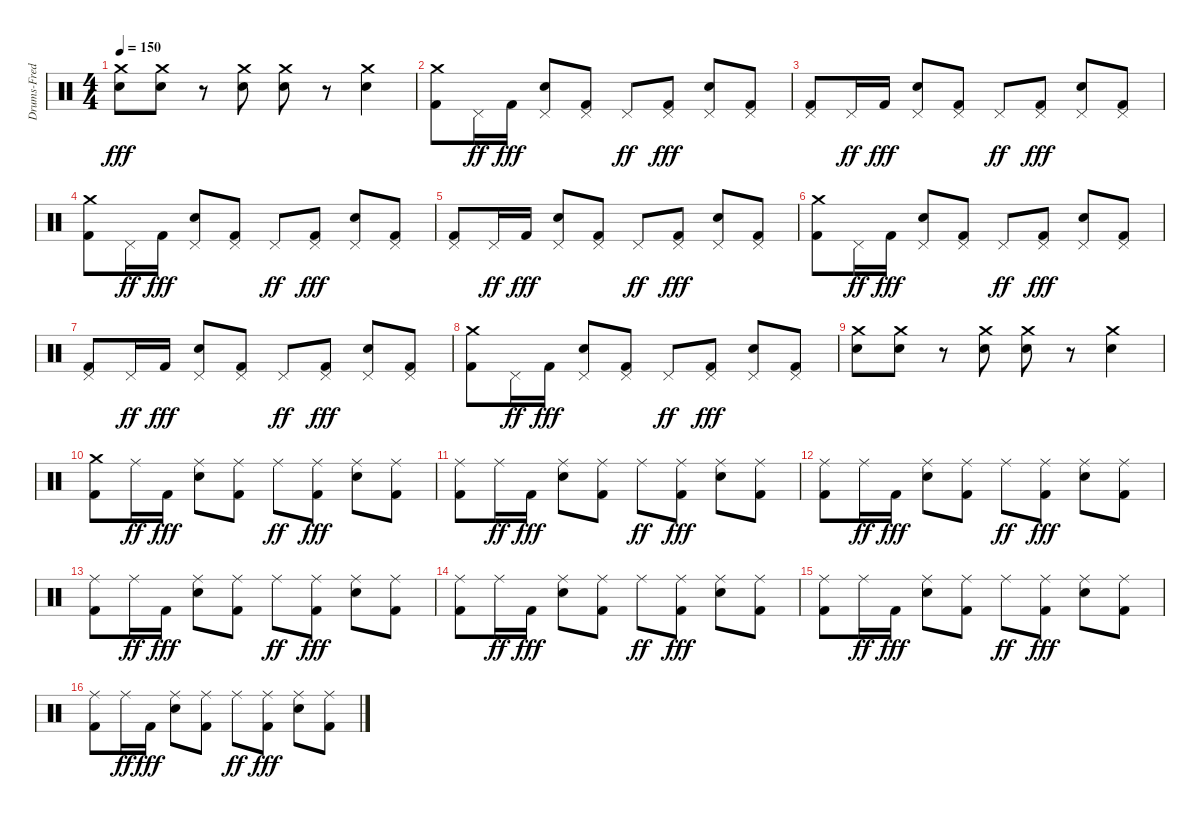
\track ("Drums-Fred" "Drums-Fred") {instrument percussion}
\staff {score}
\articulation defaults
\ts (4 4)
\tempo 150
\clef neutral
\ks c
("Crash medium (hit)" "Snare (hit) 2").8{dy fff} ("Crash medium (hit)" "Snare (hit) 2").8 r.8 ("Crash medium (hit)" "Snare (hit) 2").8 ("Crash medium (hit)" "Snare (hit) 2").8 r.8 ("Crash medium (hit)" "Snare (hit) 2").4 |
("Crash medium (hit)" "Kick (hit) 2").8 "Pedal Hi-Hat (hit)".16{dy ff} "Kick (hit) 2".16{dy fff} ("Pedal Hi-Hat (hit)" "Snare (hit) 2").8 ("Pedal Hi-Hat (hit)" "Kick (hit) 2").8 "Pedal Hi-Hat (hit)".8{dy ff} ("Pedal Hi-Hat (hit)" "Kick (hit) 2").8{dy fff} ("Pedal Hi-Hat (hit)" "Snare (hit) 2").8 ("Pedal Hi-Hat (hit)" "Kick (hit) 2").8 |
("Pedal Hi-Hat (hit)" "Kick (hit) 2").8 "Pedal Hi-Hat (hit)".16{dy ff} "Kick (hit) 2".16{dy fff} ("Pedal Hi-Hat (hit)" "Snare (hit) 2").8 ("Pedal Hi-Hat (hit)" "Kick (hit) 2").8 "Pedal Hi-Hat (hit)".8{dy ff} ("Pedal Hi-Hat (hit)" "Kick (hit) 2").8{dy fff} ("Pedal Hi-Hat (hit)" "Snare (hit) 2").8 ("Pedal Hi-Hat (hit)" "Kick (hit) 2").8 |
("Crash medium (hit)" "Kick (hit) 2").8 "Pedal Hi-Hat (hit)".16{dy ff} "Kick (hit) 2".16{dy fff} ("Pedal Hi-Hat (hit)" "Snare (hit) 2").8 ("Pedal Hi-Hat (hit)" "Kick (hit) 2").8 "Pedal Hi-Hat (hit)".8{dy ff} ("Pedal Hi-Hat (hit)" "Kick (hit) 2").8{dy fff} ("Pedal Hi-Hat (hit)" "Snare (hit) 2").8 ("Pedal Hi-Hat (hit)" "Kick (hit) 2").8 |
("Pedal Hi-Hat (hit)" "Kick (hit) 2").8 "Pedal Hi-Hat (hit)".16{dy ff} "Kick (hit) 2".16{dy fff} ("Pedal Hi-Hat (hit)" "Snare (hit) 2").8 ("Pedal Hi-Hat (hit)" "Kick (hit) 2").8 "Pedal Hi-Hat (hit)".8{dy ff} ("Pedal Hi-Hat (hit)" "Kick (hit) 2").8{dy fff} ("Pedal Hi-Hat (hit)" "Snare (hit) 2").8 ("Pedal Hi-Hat (hit)" "Kick (hit) 2").8 |
("Crash medium (hit)" "Kick (hit) 2").8 "Pedal Hi-Hat (hit)".16{dy ff} "Kick (hit) 2".16{dy fff} ("Pedal Hi-Hat (hit)" "Snare (hit) 2").8 ("Pedal Hi-Hat (hit)" "Kick (hit) 2").8 "Pedal Hi-Hat (hit)".8{dy ff} ("Pedal Hi-Hat (hit)" "Kick (hit) 2").8{dy fff} ("Pedal Hi-Hat (hit)" "Snare (hit) 2").8 ("Pedal Hi-Hat (hit)" "Kick (hit) 2").8 |
("Pedal Hi-Hat (hit)" "Kick (hit) 2").8 "Pedal Hi-Hat (hit)".16{dy ff} "Kick (hit) 2".16{dy fff} ("Pedal Hi-Hat (hit)" "Snare (hit) 2").8 ("Pedal Hi-Hat (hit)" "Kick (hit) 2").8 "Pedal Hi-Hat (hit)".8{dy ff} ("Pedal Hi-Hat (hit)" "Kick (hit) 2").8{dy fff} ("Pedal Hi-Hat (hit)" "Snare (hit) 2").8 ("Pedal Hi-Hat (hit)" "Kick (hit) 2").8 |
("Crash medium (hit)" "Kick (hit) 2").8 "Pedal Hi-Hat (hit)".16{dy ff} "Kick (hit) 2".16{dy fff} ("Pedal Hi-Hat (hit)" "Snare (hit) 2").8 ("Pedal Hi-Hat (hit)" "Kick (hit) 2").8 "Pedal Hi-Hat (hit)".8{dy ff} ("Pedal Hi-Hat (hit)" "Kick (hit) 2").8{dy fff} ("Pedal Hi-Hat (hit)" "Snare (hit) 2").8 ("Pedal Hi-Hat (hit)" "Kick (hit) 2").8 |
("Crash medium (hit)" "Snare (hit) 2").8 ("Crash medium (hit)" "Snare (hit) 2").8 r.8 ("Crash medium (hit)" "Snare (hit) 2").8 ("Crash medium (hit)" "Snare (hit) 2").8 r.8 ("Crash medium (hit)" "Snare (hit) 2").4 |
("Crash medium (hit)" "Kick (hit) 2").8 "Ride (middle)".16{dy ff} "Kick (hit) 2".16{dy fff} ("Ride (middle)" "Snare (hit) 2").8 ("Ride (middle)" "Kick (hit) 2").8 "Ride (middle)".8{dy ff} ("Ride (middle)" "Kick (hit) 2").8{dy fff} ("Ride (middle)" "Snare (hit) 2").8 ("Ride (middle)" "Kick (hit) 2").8 |
("Ride (middle)" "Kick (hit) 2").8 "Ride (middle)".16{dy ff} "Kick (hit) 2".16{dy fff} ("Ride (middle)" "Snare (hit) 2").8 ("Ride (middle)" "Kick (hit) 2").8 "Ride (middle)".8{dy ff} ("Ride (middle)" "Kick (hit) 2").8{dy fff} ("Ride (middle)" "Snare (hit) 2").8 ("Ride (middle)" "Kick (hit) 2").8 |
("Ride (middle)" "Kick (hit) 2").8 "Ride (middle)".16{dy ff} "Kick (hit) 2".16{dy fff} ("Ride (middle)" "Snare (hit) 2").8 ("Ride (middle)" "Kick (hit) 2").8 "Ride (middle)".8{dy ff} ("Ride (middle)" "Kick (hit) 2").8{dy fff} ("Ride (middle)" "Snare (hit) 2").8 ("Ride (middle)" "Kick (hit) 2").8 |
("Ride (middle)" "Kick (hit) 2").8 "Ride (middle)".16{dy ff} "Kick (hit) 2".16{dy fff} ("Ride (middle)" "Snare (hit) 2").8 ("Ride (middle)" "Kick (hit) 2").8 "Ride (middle)".8{dy ff} ("Ride (middle)" "Kick (hit) 2").8{dy fff} ("Ride (middle)" "Snare (hit) 2").8 ("Ride (middle)" "Kick (hit) 2").8 |
("Ride (middle)" "Kick (hit) 2").8 "Ride (middle)".16{dy ff} "Kick (hit) 2".16{dy fff} ("Ride (middle)" "Snare (hit) 2").8 ("Ride (middle)" "Kick (hit) 2").8 "Ride (middle)".8{dy ff} ("Ride (middle)" "Kick (hit) 2").8{dy fff} ("Ride (middle)" "Snare (hit) 2").8 ("Ride (middle)" "Kick (hit) 2").8 |
("Ride (middle)" "Kick (hit) 2").8 "Ride (middle)".16{dy ff} "Kick (hit) 2".16{dy fff} ("Ride (middle)" "Snare (hit) 2").8 ("Ride (middle)" "Kick (hit) 2").8 "Ride (middle)".8{dy ff} ("Ride (middle)" "Kick (hit) 2").8{dy fff} ("Ride (middle)" "Snare (hit) 2").8 ("Ride (middle)" "Kick (hit) 2").8 |
("Ride (middle)" "Kick (hit) 2").8 "Ride (middle)".16{dy ff} "Kick (hit) 2".16{dy fff} ("Ride (middle)" "Snare (hit) 2").8 ("Ride (middle)" "Kick (hit) 2").8 "Ride (middle)".8{dy ff} ("Ride (middle)" "Kick (hit) 2").8{dy fff} ("Ride (middle)" "Snare (hit) 2").8 ("Ride (middle)" "Kick (hit) 2").8
